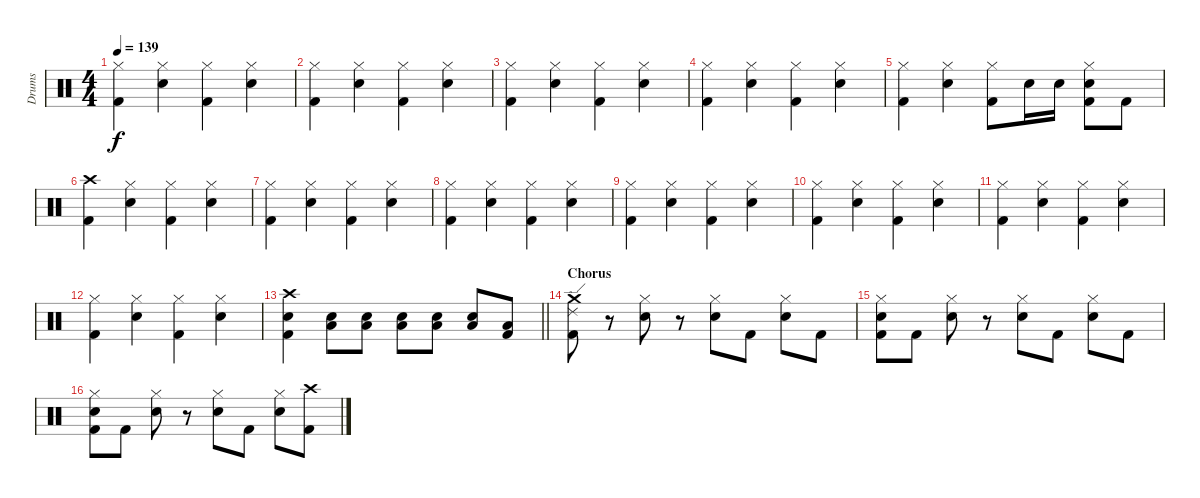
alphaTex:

\track ("Drums" "Drums") {instrument percussion}
\staff {score}
\articulation defaults
\ts (4 4)
\tempo 139
\clef neutral
\ks c
("Hi-Hat (closed)" "Kick (hit) 2").4{dy f} ("Hi-Hat (closed)" "Electric Snare (hit)").4 ("Hi-Hat (closed)" "Kick (hit) 2").4 ("Hi-Hat (closed)" "Electric Snare (hit)").4 |
("Hi-Hat (closed)" "Kick (hit) 2").4 ("Hi-Hat (closed)" "Electric Snare (hit)").4 ("Hi-Hat (closed)" "Kick (hit) 2").4 ("Hi-Hat (closed)" "Electric Snare (hit)").4 |
("Hi-Hat (closed)" "Kick (hit) 2").4 ("Hi-Hat (closed)" "Electric Snare (hit)").4 ("Hi-Hat (closed)" "Kick (hit) 2").4 ("Hi-Hat (closed)" "Electric Snare (hit)").4 |
("Hi-Hat (closed)" "Kick (hit) 2").4 ("Hi-Hat (closed)" "Electric Snare (hit)").4 ("Hi-Hat (closed)" "Kick (hit) 2").4 ("Hi-Hat (closed)" "Electric Snare (hit)").4 |
("Hi-Hat (closed)" "Kick (hit) 2").4 ("Hi-Hat (closed)" "Electric Snare (hit)").4 ("Hi-Hat (closed)" "Kick (hit) 2").8 "Electric Snare (hit)".16 "Electric Snare (hit)".16 ("Hi-Hat (closed)" "Electric Snare (hit)" "Kick (hit) 2").8 "Kick (hit) 2".8 |
("Crash high (hit)" "Kick (hit) 2").4 ("Hi-Hat (closed)" "Electric Snare (hit)").4 ("Hi-Hat (closed)" "Kick (hit) 2").4 ("Hi-Hat (closed)" "Electric Snare (hit)").4 |
("Hi-Hat (closed)" "Kick (hit) 2").4 ("Hi-Hat (closed)" "Electric Snare (hit)").4 ("Hi-Hat (closed)" "Kick (hit) 2").4 ("Hi-Hat (closed)" "Electric Snare (hit)").4 |
("Hi-Hat (closed)" "Kick (hit) 2").4 ("Hi-Hat (closed)" "Electric Snare (hit)").4 ("Hi-Hat (closed)" "Kick (hit) 2").4 ("Hi-Hat (closed)" "Electric Snare (hit)").4 |
("Hi-Hat (closed)" "Kick (hit) 2").4 ("Hi-Hat (closed)" "Electric Snare (hit)").4 ("Hi-Hat (closed)" "Kick (hit) 2").4 ("Hi-Hat (closed)" "Electric Snare (hit)").4 |
("Hi-Hat (closed)" "Kick (hit) 2").4 ("Hi-Hat (closed)" "Electric Snare (hit)").4 ("Hi-Hat (closed)" "Kick (hit) 2").4 ("Hi-Hat (closed)" "Electric Snare (hit)").4 |
("Hi-Hat (closed)" "Kick (hit) 2").4 ("Hi-Hat (closed)" "Electric Snare (hit)").4 ("Hi-Hat (closed)" "Kick (hit) 2").4 ("Hi-Hat (closed)" "Electric Snare (hit)").4 |
("Hi-Hat (closed)" "Kick (hit) 2").4 ("Hi-Hat (closed)" "Electric Snare (hit)").4 ("Hi-Hat (closed)" "Kick (hit) 2").4 ("Hi-Hat (closed)" "Electric Snare (hit)").4 |
\barLineRight lightlight
("Crash high (hit)" "Electric Snare (hit)" "Kick (hit) 2").4 ("Electric Snare (hit)" "Low Tom (hit)").8 ("Electric Snare (hit)" "Low Tom (hit)").8 ("Electric Snare (hit)" "Low Tom (hit)").8 ("Electric Snare (hit)" "Low Tom (hit)").8 ("Electric Snare (hit)" "Low Tom (hit)").8 ("Low Tom (hit)" "Kick (hit) 2").8 |
\section ("" "Chorus")
("Ride (edge) 2" "Crash medium (hit)" "Kick (hit) 2").8 r.8 ("Hi-Hat (closed)" "Electric Snare (hit)").8 r.8 ("Hi-Hat (closed)" "Electric Snare (hit)").8 "Kick (hit) 2".8 ("Hi-Hat (closed)" "Electric Snare (hit)").8 "Kick (hit) 2".8 |
("Hi-Hat (closed)" "Electric Snare (hit)" "Kick (hit) 2").8 "Kick (hit) 2".8 ("Hi-Hat (closed)" "Electric Snare (hit)").8 r.8 ("Hi-Hat (closed)" "Electric Snare (hit)").8 "Kick (hit) 2".8 ("Hi-Hat (closed)" "Electric Snare (hit)").8 "Kick (hit) 2".8 |
("Hi-Hat (closed)" "Electric Snare (hit)" "Kick (hit) 2").8 "Kick (hit) 2".8 ("Hi-Hat (closed)" "Electric Snare (hit)").8 r.8 ("Hi-Hat (closed)" "Electric Snare (hit)").8 "Kick (hit) 2".8 ("Hi-Hat (closed)" "Electric Snare (hit)").8 ("Crash high (hit)" "Kick (hit) 2").8
